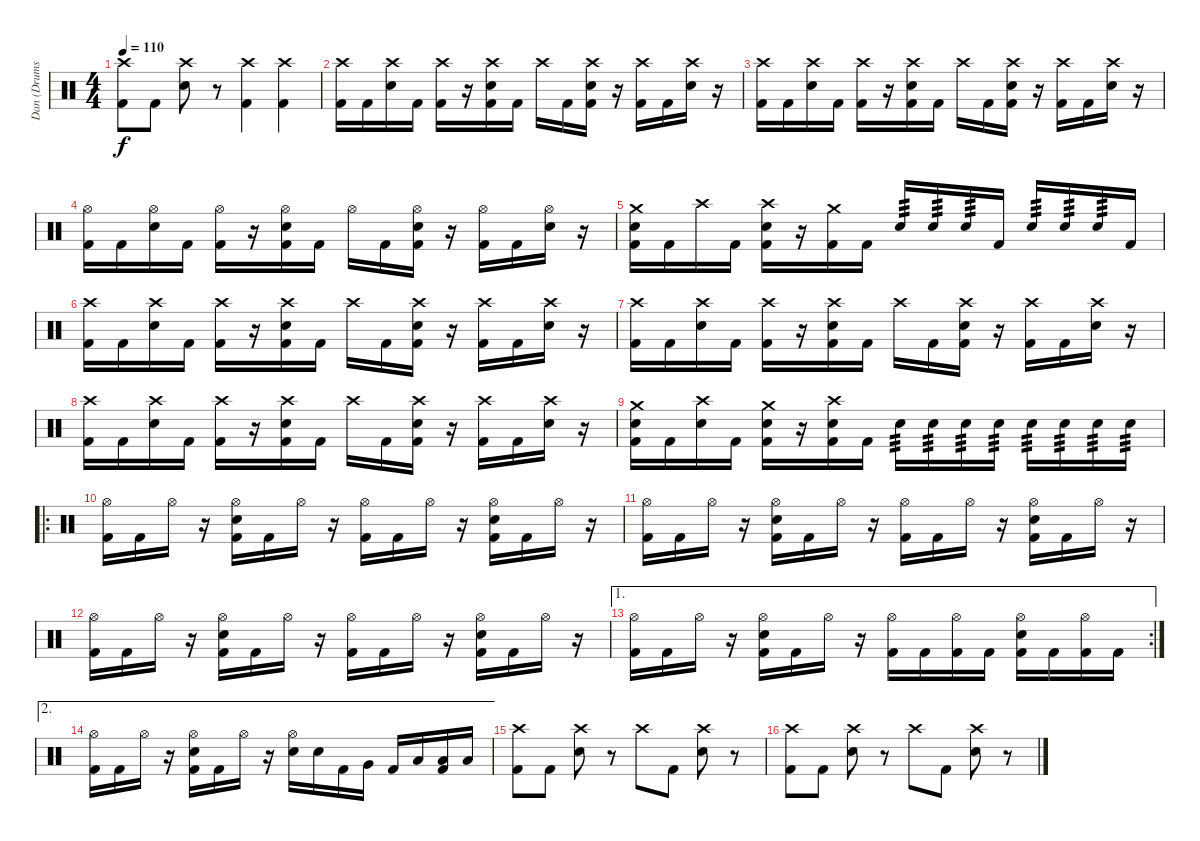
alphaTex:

\track ("Dan (Drums)" "Dan (Drums") {instrument percussion}
\staff {score}
\articulation defaults
\ts (4 4)
\tempo 110
\clef neutral
\ks c
("Crash high (hit)" "Kick (hit) 2").8{dy f} "Kick (hit) 2".8 ("Crash high (hit)" "Electric Snare (hit)").8 r.8 ("Crash high (hit)" "Kick (hit) 2").4 ("Crash high (hit)" "Kick (hit) 2").4 |
("Crash high (hit)" "Kick (hit) 2").16 "Kick (hit) 2".16 ("Crash high (hit)" "Electric Snare (hit)").16 "Kick (hit) 2".16 ("Crash high (hit)" "Kick (hit) 2").16 r.16 ("Crash high (hit)" "Electric Snare (hit)" "Kick (hit) 2").16 "Kick (hit) 2".16 "Crash high (hit)".16 "Kick (hit) 2".16 ("Crash high (hit)" "Electric Snare (hit)" "Kick (hit) 2").16 r.16 ("Crash high (hit)" "Kick (hit) 2").16 "Kick (hit) 2".16 ("Crash high (hit)" "Electric Snare (hit)").16 r.16 |
("Crash high (hit)" "Kick (hit) 2").16 "Kick (hit) 2".16 ("Crash high (hit)" "Electric Snare (hit)").16 "Kick (hit) 2".16 ("Crash high (hit)" "Kick (hit) 2").16 r.16 ("Crash high (hit)" "Electric Snare (hit)" "Kick (hit) 2").16 "Kick (hit) 2".16 "Crash high (hit)".16 "Kick (hit) 2".16 ("Crash high (hit)" "Electric Snare (hit)" "Kick (hit) 2").16 r.16 ("Crash high (hit)" "Kick (hit) 2").16 "Kick (hit) 2".16 ("Crash high (hit)" "Electric Snare (hit)").16 r.16 |
("Hi-Hat (open)" "Kick (hit) 2").16 "Kick (hit) 2".16 ("Hi-Hat (open)" "Electric Snare (hit)").16 "Kick (hit) 2".16 ("Hi-Hat (open)" "Kick (hit) 2").16 r.16 ("Hi-Hat (open)" "Electric Snare (hit)" "Kick (hit) 2").16 "Kick (hit) 2".16 "Hi-Hat (open)".16 "Kick (hit) 2".16 ("Hi-Hat (open)" "Electric Snare (hit)" "Kick (hit) 2").16 r.16 ("Hi-Hat (open)" "Kick (hit) 2").16 "Kick (hit) 2".16 ("Hi-Hat (open)" "Electric Snare (hit)").16 r.16 |
("Crash medium (hit)" "Electric Snare (hit)" "Kick (hit) 2").16 "Kick (hit) 2".16 "Crash high (hit)".16 "Kick (hit) 2".16 ("Crash high (hit)" "Electric Snare (hit)" "Kick (hit) 2").16 r.16 ("Crash medium (hit)" "Kick (hit) 2").16 "Kick (hit) 2".16 "Electric Snare (hit)".16{tp 3} "Electric Snare (hit)".16{tp 3} "Electric Snare (hit)".16{tp 3} "Kick (hit) 2".16 "Electric Snare (hit)".16{tp 3} "Electric Snare (hit)".16{tp 3} "Electric Snare (hit)".16{tp 3} "Kick (hit) 2".16 |
("Crash high (hit)" "Kick (hit) 2").16 "Kick (hit) 2".16 ("Crash high (hit)" "Electric Snare (hit)").16 "Kick (hit) 2".16 ("Crash high (hit)" "Kick (hit) 2").16 r.16 ("Crash high (hit)" "Electric Snare (hit)" "Kick (hit) 2").16 "Kick (hit) 2".16 "Crash high (hit)".16 "Kick (hit) 2".16 ("Crash high (hit)" "Electric Snare (hit)" "Kick (hit) 2").16 r.16 ("Crash high (hit)" "Kick (hit) 2").16 "Kick (hit) 2".16 ("Crash high (hit)" "Electric Snare (hit)").16 r.16 |
("Crash high (hit)" "Kick (hit) 2").16 "Kick (hit) 2".16 ("Crash high (hit)" "Electric Snare (hit)").16 "Kick (hit) 2".16 ("Crash high (hit)" "Kick (hit) 2").16 r.16 ("Crash high (hit)" "Electric Snare (hit)" "Kick (hit) 2").16 "Kick (hit) 2".16 "Crash high (hit)".16 "Kick (hit) 2".16 ("Crash high (hit)" "Electric Snare (hit)" "Kick (hit) 2").16 r.16 ("Crash high (hit)" "Kick (hit) 2").16 "Kick (hit) 2".16 ("Crash high (hit)" "Electric Snare (hit)").16 r.16 |
("Crash high (hit)" "Kick (hit) 2").16 "Kick (hit) 2".16 ("Crash high (hit)" "Electric Snare (hit)").16 "Kick (hit) 2".16 ("Crash high (hit)" "Kick (hit) 2").16 r.16 ("Crash high (hit)" "Electric Snare (hit)" "Kick (hit) 2").16 "Kick (hit) 2".16 "Crash high (hit)".16 "Kick (hit) 2".16 ("Crash high (hit)" "Electric Snare (hit)" "Kick (hit) 2").16 r.16 ("Crash high (hit)" "Kick (hit) 2").16 "Kick (hit) 2".16 ("Crash high (hit)" "Electric Snare (hit)").16 r.16 |
("Crash medium (hit)" "Electric Snare (hit)" "Kick (hit) 2").16 "Kick (hit) 2".16 ("Crash high (hit)" "Electric Snare (hit)").16 "Kick (hit) 2".16 ("Crash medium (hit)" "Electric Snare (hit)" "Kick (hit) 2").16 r.16 ("Crash high (hit)" "Electric Snare (hit)" "Kick (hit) 2").16 "Kick (hit) 2".16 "Electric Snare (hit)".16{tp 3} "Electric Snare (hit)".16{tp 3} "Electric Snare (hit)".16{tp 3} "Electric Snare (hit)".16{tp 3} "Electric Snare (hit)".16{tp 3} "Electric Snare (hit)".16{tp 3} "Electric Snare (hit)".16{tp 3} "Electric Snare (hit)".16{tp 3} |
\ro
("Hi-Hat (open)" "Kick (hit) 2").16 "Kick (hit) 2".16 "Hi-Hat (open)".16 r.16 ("Hi-Hat (open)" "Electric Snare (hit)" "Kick (hit) 2").16 "Kick (hit) 2".16 "Hi-Hat (open)".16 r.16 ("Hi-Hat (open)" "Kick (hit) 2").16 "Kick (hit) 2".16 "Hi-Hat (open)".16 r.16 ("Hi-Hat (open)" "Electric Snare (hit)" "Kick (hit) 2").16 "Kick (hit) 2".16 "Hi-Hat (open)".16 r.16 |
("Hi-Hat (open)" "Kick (hit) 2").16 "Kick (hit) 2".16 "Hi-Hat (open)".16 r.16 ("Hi-Hat (open)" "Electric Snare (hit)" "Kick (hit) 2").16 "Kick (hit) 2".16 "Hi-Hat (open)".16 r.16 ("Hi-Hat (open)" "Kick (hit) 2").16 "Kick (hit) 2".16 "Hi-Hat (open)".16 r.16 ("Hi-Hat (open)" "Electric Snare (hit)" "Kick (hit) 2").16 "Kick (hit) 2".16 "Hi-Hat (open)".16 r.16 |
("Hi-Hat (open)" "Kick (hit) 2").16 "Kick (hit) 2".16 "Hi-Hat (open)".16 r.16 ("Hi-Hat (open)" "Electric Snare (hit)" "Kick (hit) 2").16 "Kick (hit) 2".16 "Hi-Hat (open)".16 r.16 ("Hi-Hat (open)" "Kick (hit) 2").16 "Kick (hit) 2".16 "Hi-Hat (open)".16 r.16 ("Hi-Hat (open)" "Electric Snare (hit)" "Kick (hit) 2").16 "Kick (hit) 2".16 "Hi-Hat (open)".16 r.16 |
\ae 1
\rc 2
("Hi-Hat (open)" "Kick (hit) 2").16 "Kick (hit) 2".16 "Hi-Hat (open)".16 r.16 ("Hi-Hat (open)" "Electric Snare (hit)" "Kick (hit) 2").16 "Kick (hit) 2".16 "Hi-Hat (open)".16 r.16 ("Hi-Hat (open)" "Kick (hit) 2").16 "Kick (hit) 2".16 ("Hi-Hat (open)" "Kick (hit) 2").16 "Kick (hit) 2".16 ("Hi-Hat (open)" "Electric Snare (hit)" "Kick (hit) 2").16 "Kick (hit) 2".16 ("Hi-Hat (open)" "Kick (hit) 2").16 "Kick (hit) 2".16 |
\ae 2
("Hi-Hat (open)" "Kick (hit) 2").16 "Kick (hit) 2".16 "Hi-Hat (open)".16 r.16 ("Hi-Hat (open)" "Electric Snare (hit)" "Kick (hit) 2").16 "Kick (hit) 2".16 "Hi-Hat (open)".16 r.16 ("Hi-Hat (open)" "Electric Snare (hit)").16 "Electric Snare (hit)".16 "Kick (hit) 2".16 "Very Low Tom (hit)".16 "Kick (hit) 2".16 "Low Tom (hit)".16 ("Low Floor Tom (hit)" "Kick (hit) 2").16 "Low Floor Tom (hit)".16 |
("Crash high (hit)" "Kick (hit) 2").8 "Kick (hit) 2".8 ("Crash high (hit)" "Electric Snare (hit)").8 r.8 "Crash high (hit)".8 "Kick (hit) 2".8 ("Crash high (hit)" "Electric Snare (hit)").8 r.8 |
("Crash high (hit)" "Kick (hit) 2").8 "Kick (hit) 2".8 ("Crash high (hit)" "Electric Snare (hit)").8 r.8 "Crash high (hit)".8 "Kick (hit) 2".8 ("Crash high (hit)" "Electric Snare (hit)").8 r.8
